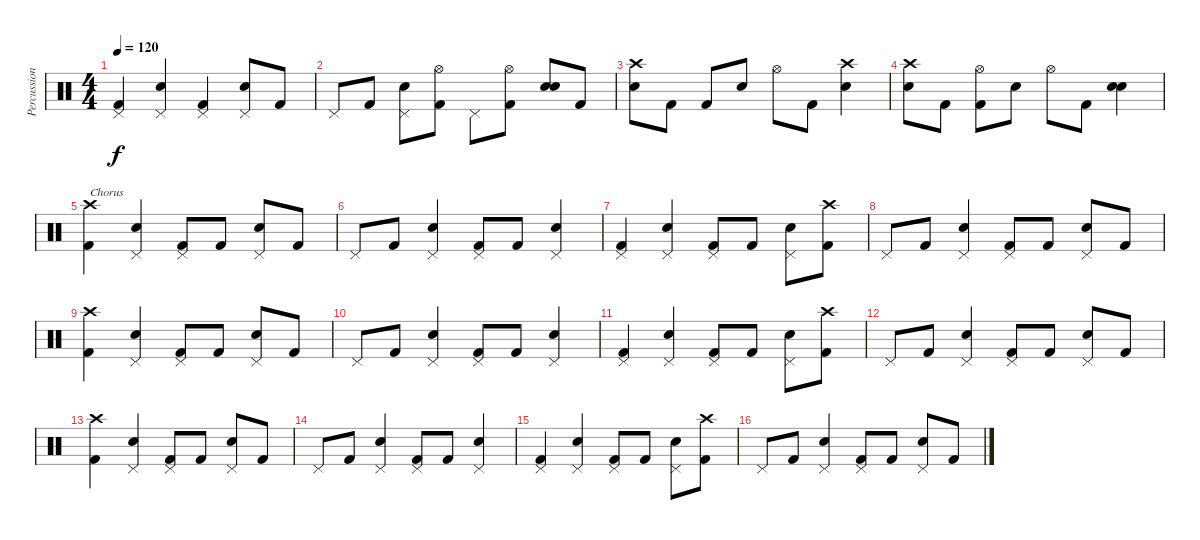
\track ("Percussion" "Percussion") {instrument percussion}
\staff {score}
\articulation defaults
\ts (4 4)
\tempo 120
\clef neutral
\ks c
("Pedal Hi-Hat (hit)" "Kick (hit) 2").4{dy f} ("Pedal Hi-Hat (hit)" "Snare (hit) 2").4 ("Pedal Hi-Hat (hit)" "Kick (hit) 2").4 ("Pedal Hi-Hat (hit)" "Snare (hit) 2").8 "Kick (hit) 2".8 |
"Pedal Hi-Hat (hit)".8 "Kick (hit) 2".8 ("Pedal Hi-Hat (hit)" "Snare (hit) 2").8 ("Hi-Hat (open)" "Kick (hit) 2").8 "Pedal Hi-Hat (hit)".8 ("Hi-Hat (open)" "Kick (hit) 2").8 ("Snare (hit) 2" "Snare (hit) 2").8 "Kick (hit) 2".8 |
("Crash high (hit)" "Snare (hit) 2").8 "Kick (hit) 2".8 "Kick (hit) 2".8 "Snare (hit) 2".8 "Hi-Hat (open)".8 "Kick (hit) 2".8 ("Crash high (hit)" "Snare (hit) 2").4 |
("Crash high (hit)" "Snare (hit) 2").8 "Kick (hit) 2".8 ("Hi-Hat (open)" "Kick (hit) 2").8 "Snare (hit) 2".8 "Hi-Hat (open)".8 "Kick (hit) 2".8 ("Snare (hit) 2" "Snare (hit) 2").4 |
("Crash high (hit)" "Kick (hit) 2").4{txt "Chorus"} ("Pedal Hi-Hat (hit)" "Snare (hit) 2").4 ("Pedal Hi-Hat (hit)" "Kick (hit) 2").8 "Kick (hit) 2".8 ("Pedal Hi-Hat (hit)" "Snare (hit) 2").8 "Kick (hit) 2".8 |
"Pedal Hi-Hat (hit)".8 "Kick (hit) 2".8 ("Pedal Hi-Hat (hit)" "Snare (hit) 2").4 ("Pedal Hi-Hat (hit)" "Kick (hit) 2").8 "Kick (hit) 2".8 ("Pedal Hi-Hat (hit)" "Snare (hit) 2").4 |
("Pedal Hi-Hat (hit)" "Kick (hit) 2").4 ("Pedal Hi-Hat (hit)" "Snare (hit) 2").4 ("Pedal Hi-Hat (hit)" "Kick (hit) 2").8 "Kick (hit) 2".8 ("Pedal Hi-Hat (hit)" "Snare (hit) 2").8 ("Crash high (hit)" "Kick (hit) 2").8 |
"Pedal Hi-Hat (hit)".8 "Kick (hit) 2".8 ("Pedal Hi-Hat (hit)" "Snare (hit) 2").4 ("Pedal Hi-Hat (hit)" "Kick (hit) 2").8 "Kick (hit) 2".8 ("Pedal Hi-Hat (hit)" "Snare (hit) 2").8 "Kick (hit) 2".8 |
("Crash high (hit)" "Kick (hit) 2").4 ("Pedal Hi-Hat (hit)" "Snare (hit) 2").4 ("Pedal Hi-Hat (hit)" "Kick (hit) 2").8 "Kick (hit) 2".8 ("Pedal Hi-Hat (hit)" "Snare (hit) 2").8 "Kick (hit) 2".8 |
"Pedal Hi-Hat (hit)".8 "Kick (hit) 2".8 ("Pedal Hi-Hat (hit)" "Snare (hit) 2").4 ("Pedal Hi-Hat (hit)" "Kick (hit) 2").8 "Kick (hit) 2".8 ("Pedal Hi-Hat (hit)" "Snare (hit) 2").4 |
("Pedal Hi-Hat (hit)" "Kick (hit) 2").4 ("Pedal Hi-Hat (hit)" "Snare (hit) 2").4 ("Pedal Hi-Hat (hit)" "Kick (hit) 2").8 "Kick (hit) 2".8 ("Pedal Hi-Hat (hit)" "Snare (hit) 2").8 ("Crash high (hit)" "Kick (hit) 2").8 |
"Pedal Hi-Hat (hit)".8 "Kick (hit) 2".8 ("Pedal Hi-Hat (hit)" "Snare (hit) 2").4 ("Pedal Hi-Hat (hit)" "Kick (hit) 2").8 "Kick (hit) 2".8 ("Pedal Hi-Hat (hit)" "Snare (hit) 2").8 "Kick (hit) 2".8 |
("Crash high (hit)" "Kick (hit) 2").4 ("Pedal Hi-Hat (hit)" "Snare (hit) 2").4 ("Pedal Hi-Hat (hit)" "Kick (hit) 2").8 "Kick (hit) 2".8 ("Pedal Hi-Hat (hit)" "Snare (hit) 2").8 "Kick (hit) 2".8 |
"Pedal Hi-Hat (hit)".8 "Kick (hit) 2".8 ("Pedal Hi-Hat (hit)" "Snare (hit) 2").4 ("Pedal Hi-Hat (hit)" "Kick (hit) 2").8 "Kick (hit) 2".8 ("Pedal Hi-Hat (hit)" "Snare (hit) 2").4 |
("Pedal Hi-Hat (hit)" "Kick (hit) 2").4 ("Pedal Hi-Hat (hit)" "Snare (hit) 2").4 ("Pedal Hi-Hat (hit)" "Kick (hit) 2").8 "Kick (hit) 2".8 ("Pedal Hi-Hat (hit)" "Snare (hit) 2").8 ("Crash high (hit)" "Kick (hit) 2").8 |
"Pedal Hi-Hat (hit)".8 "Kick (hit) 2".8 ("Pedal Hi-Hat (hit)" "Snare (hit) 2").4 ("Pedal Hi-Hat (hit)" "Kick (hit) 2").8 "Kick (hit) 2".8 ("Pedal Hi-Hat (hit)" "Snare (hit) 2").8 "Kick (hit) 2".8
